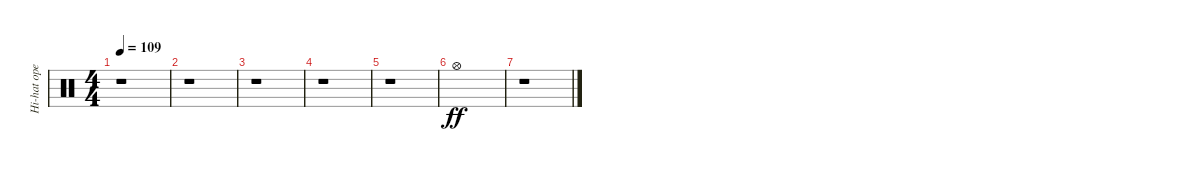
\track ("Hi-hat open" "Hi-hat ope") {instrument percussion}
\staff {score}
\articulation defaults
\ts (4 4)
\tempo 109
\clef neutral
\ks c
r.1{dy f} |
r.1 |
r.1 |
r.1 |
r.1 |
"Hi-Hat (open)".1{dy ff} |
r.1
